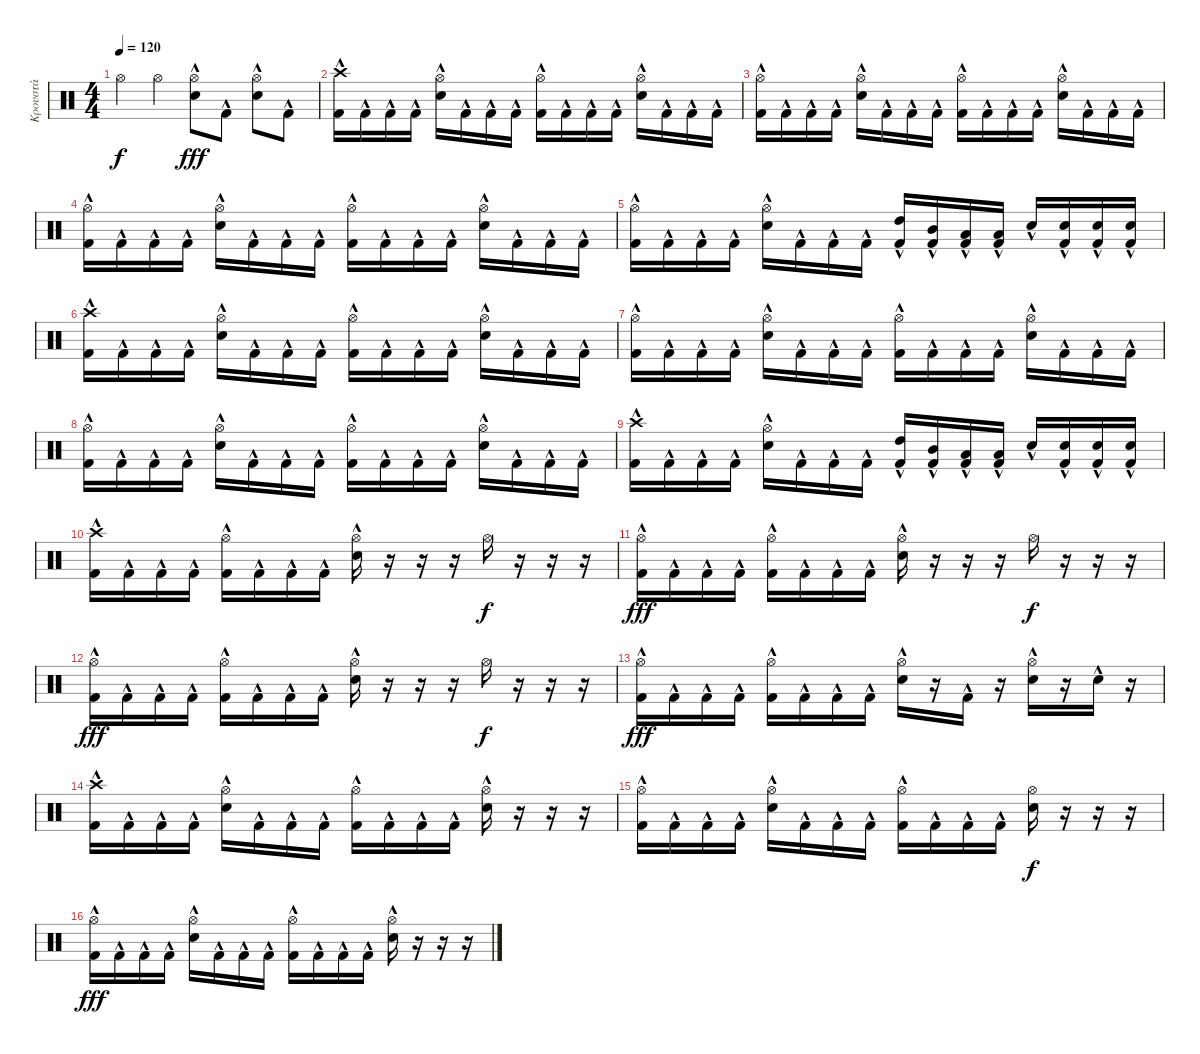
\track ("Κρουστά" "Κρουστά") {instrument percussion}
\staff {score}
\articulation defaults
\ts (4 4)
\tempo 120
\clef neutral
\ks c "Hi-Hat (open)".4{dy f} "Hi-Hat (open)".4
("Hi-Hat (open)" "Electric Snare (hit)"{hac}).8{dy fff} "Kick (hit) 2"{hac}.8 ("Hi-Hat (open)" "Electric Snare (hit)"{hac}).8 "Kick (hit) 2"{hac}.8 |
("Kick (hit) 2"{hac} "Crash high (hit)").16 "Kick (hit) 2"{hac}.16 "Kick (hit) 2"{hac}.16 "Kick (hit) 2"{hac}.16 ("Electric Snare (hit)"{hac} "Hi-Hat (open)").16 "Kick (hit) 2"{hac}.16 "Kick (hit) 2"{hac}.16 "Kick (hit) 2"{hac}.16 ("Kick (hit) 2"{hac} "Hi-Hat (open)").16 "Kick (hit) 2"{hac}.16 "Kick (hit) 2"{hac}.16 "Kick (hit) 2"{hac}.16 ("Electric Snare (hit)"{hac} "Hi-Hat (open)").16 "Kick (hit) 2"{hac}.16 "Kick (hit) 2"{hac}.16 "Kick (hit) 2"{hac}.16 |
("Kick (hit) 2"{hac} "Hi-Hat (open)").16 "Kick (hit) 2"{hac}.16 "Kick (hit) 2"{hac}.16 "Kick (hit) 2"{hac}.16 ("Electric Snare (hit)"{hac} "Hi-Hat (open)").16 "Kick (hit) 2"{hac}.16 "Kick (hit) 2"{hac}.16 "Kick (hit) 2"{hac}.16 ("Kick (hit) 2"{hac} "Hi-Hat (open)").16 "Kick (hit) 2"{hac}.16 "Kick (hit) 2"{hac}.16 "Kick (hit) 2"{hac}.16 ("Electric Snare (hit)"{hac} "Hi-Hat (open)").16 "Kick (hit) 2"{hac}.16 "Kick (hit) 2"{hac}.16 "Kick (hit) 2"{hac}.16 |
("Kick (hit) 2"{hac} "Hi-Hat (open)").16 "Kick (hit) 2"{hac}.16 "Kick (hit) 2"{hac}.16 "Kick (hit) 2"{hac}.16 ("Electric Snare (hit)"{hac} "Hi-Hat (open)").16 "Kick (hit) 2"{hac}.16 "Kick (hit) 2"{hac}.16 "Kick (hit) 2"{hac}.16 ("Kick (hit) 2"{hac} "Hi-Hat (open)").16 "Kick (hit) 2"{hac}.16 "Kick (hit) 2"{hac}.16 "Kick (hit) 2"{hac}.16 ("Electric Snare (hit)"{hac} "Hi-Hat (open)").16 "Kick (hit) 2"{hac}.16 "Kick (hit) 2"{hac}.16 "Kick (hit) 2"{hac}.16 |
("Kick (hit) 2"{hac} "Hi-Hat (open)").16 "Kick (hit) 2"{hac}.16 "Kick (hit) 2"{hac}.16 "Kick (hit) 2"{hac}.16 ("Electric Snare (hit)"{hac} "Hi-Hat (open)").16 "Kick (hit) 2"{hac}.16 "Kick (hit) 2"{hac}.16 "Kick (hit) 2"{hac}.16 ("Kick (hit) 2"{hac} "High Tom (hit)").16 ("Kick (hit) 2"{hac} "Mid Tom (hit)").16 ("Kick (hit) 2"{hac} "Low Tom (hit)").16 ("Kick (hit) 2"{hac} "Low Tom (hit)").16 "Electric Snare (hit)"{hac}.16 ("Kick (hit) 2"{hac} "Electric Snare (hit)").16 ("Kick (hit) 2"{hac} "Electric Snare (hit)").16 ("Kick (hit) 2"{hac} "Electric Snare (hit)").16 |
("Kick (hit) 2"{hac} "Crash high (hit)").16 "Kick (hit) 2"{hac}.16 "Kick (hit) 2"{hac}.16 "Kick (hit) 2"{hac}.16 ("Electric Snare (hit)"{hac} "Hi-Hat (open)").16 "Kick (hit) 2"{hac}.16 "Kick (hit) 2"{hac}.16 "Kick (hit) 2"{hac}.16 ("Kick (hit) 2"{hac} "Hi-Hat (open)").16 "Kick (hit) 2"{hac}.16 "Kick (hit) 2"{hac}.16 "Kick (hit) 2"{hac}.16 ("Electric Snare (hit)"{hac} "Hi-Hat (open)").16 "Kick (hit) 2"{hac}.16 "Kick (hit) 2"{hac}.16 "Kick (hit) 2"{hac}.16 |
("Kick (hit) 2"{hac} "Hi-Hat (open)").16 "Kick (hit) 2"{hac}.16 "Kick (hit) 2"{hac}.16 "Kick (hit) 2"{hac}.16 ("Electric Snare (hit)"{hac} "Hi-Hat (open)").16 "Kick (hit) 2"{hac}.16 "Kick (hit) 2"{hac}.16 "Kick (hit) 2"{hac}.16 ("Kick (hit) 2"{hac} "Hi-Hat (open)").16 "Kick (hit) 2"{hac}.16 "Kick (hit) 2"{hac}.16 "Kick (hit) 2"{hac}.16 ("Electric Snare (hit)"{hac} "Hi-Hat (open)").16 "Kick (hit) 2"{hac}.16 "Kick (hit) 2"{hac}.16 "Kick (hit) 2"{hac}.16 |
("Kick (hit) 2"{hac} "Hi-Hat (open)").16 "Kick (hit) 2"{hac}.16 "Kick (hit) 2"{hac}.16 "Kick (hit) 2"{hac}.16 ("Electric Snare (hit)"{hac} "Hi-Hat (open)").16 "Kick (hit) 2"{hac}.16 "Kick (hit) 2"{hac}.16 "Kick (hit) 2"{hac}.16 ("Kick (hit) 2"{hac} "Hi-Hat (open)").16 "Kick (hit) 2"{hac}.16 "Kick (hit) 2"{hac}.16 "Kick (hit) 2"{hac}.16 ("Electric Snare (hit)"{hac} "Hi-Hat (open)").16 "Kick (hit) 2"{hac}.16 "Kick (hit) 2"{hac}.16 "Kick (hit) 2"{hac}.16 |
("Kick (hit) 2"{hac} "Crash high (hit)").16 "Kick (hit) 2"{hac}.16 "Kick (hit) 2"{hac}.16 "Kick (hit) 2"{hac}.16 ("Electric Snare (hit)"{hac} "Hi-Hat (open)").16 "Kick (hit) 2"{hac}.16 "Kick (hit) 2"{hac}.16 "Kick (hit) 2"{hac}.16 ("Kick (hit) 2"{hac} "High Tom (hit)").16 ("Kick (hit) 2"{hac} "Mid Tom (hit)").16 ("Kick (hit) 2"{hac} "Low Tom (hit)").16 ("Kick (hit) 2"{hac} "Low Tom (hit)").16 "Electric Snare (hit)"{hac}.16 ("Kick (hit) 2"{hac} "Electric Snare (hit)").16 ("Kick (hit) 2"{hac} "Electric Snare (hit)").16 ("Kick (hit) 2"{hac} "Electric Snare (hit)").16 |
("Kick (hit) 2"{hac} "Crash high (hit)").16 "Kick (hit) 2"{hac}.16 "Kick (hit) 2"{hac}.16 "Kick (hit) 2"{hac}.16 ("Kick (hit) 2"{hac} "Hi-Hat (open)").16 "Kick (hit) 2"{hac}.16 "Kick (hit) 2"{hac}.16 "Kick (hit) 2"{hac}.16 ("Electric Snare (hit)"{hac} "Hi-Hat (open)").16 r.16 r.16 r.16 "Hi-Hat (open)".16{dy f} r.16 r.16 r.16 |
("Kick (hit) 2"{hac} "Hi-Hat (open)").16{dy fff} "Kick (hit) 2"{hac}.16 "Kick (hit) 2"{hac}.16 "Kick (hit) 2"{hac}.16 ("Kick (hit) 2"{hac} "Hi-Hat (open)").16 "Kick (hit) 2"{hac}.16 "Kick (hit) 2"{hac}.16 "Kick (hit) 2"{hac}.16 ("Electric Snare (hit)"{hac} "Hi-Hat (open)").16 r.16 r.16 r.16 "Hi-Hat (open)".16{dy f} r.16 r.16 r.16 |
("Kick (hit) 2"{hac} "Hi-Hat (open)").16{dy fff} "Kick (hit) 2"{hac}.16 "Kick (hit) 2"{hac}.16 "Kick (hit) 2"{hac}.16 ("Kick (hit) 2"{hac} "Hi-Hat (open)").16 "Kick (hit) 2"{hac}.16 "Kick (hit) 2"{hac}.16 "Kick (hit) 2"{hac}.16 ("Electric Snare (hit)"{hac} "Hi-Hat (open)").16 r.16 r.16 r.16 "Hi-Hat (open)".16{dy f} r.16 r.16 r.16 |
("Kick (hit) 2"{hac} "Hi-Hat (open)").16{dy fff} "Kick (hit) 2"{hac}.16 "Kick (hit) 2"{hac}.16 "Kick (hit) 2"{hac}.16 ("Kick (hit) 2"{hac} "Hi-Hat (open)").16 "Kick (hit) 2"{hac}.16 "Kick (hit) 2"{hac}.16 "Kick (hit) 2"{hac}.16 ("Electric Snare (hit)"{hac} "Hi-Hat (open)").16 r.16 "Kick (hit) 2"{hac}.16 r.16 ("Electric Snare (hit)"{hac} "Hi-Hat (open)").16 r.16 "Electric Snare (hit)"{hac}.16 r.16 |
("Kick (hit) 2"{hac} "Crash high (hit)").16 "Kick (hit) 2"{hac}.16 "Kick (hit) 2"{hac}.16 "Kick (hit) 2"{hac}.16 ("Electric Snare (hit)"{hac} "Hi-Hat (open)").16 "Kick (hit) 2"{hac}.16 "Kick (hit) 2"{hac}.16 "Kick (hit) 2"{hac}.16 ("Kick (hit) 2"{hac} "Hi-Hat (open)").16 "Kick (hit) 2"{hac}.16 "Kick (hit) 2"{hac}.16 "Kick (hit) 2"{hac}.16 ("Electric Snare (hit)"{hac} "Hi-Hat (open)").16 r.16 r.16 r.16 |
("Kick (hit) 2"{hac} "Hi-Hat (open)").16 "Kick (hit) 2"{hac}.16 "Kick (hit) 2"{hac}.16 "Kick (hit) 2"{hac}.16 ("Electric Snare (hit)"{hac} "Hi-Hat (open)").16 "Kick (hit) 2"{hac}.16 "Kick (hit) 2"{hac}.16 "Kick (hit) 2"{hac}.16 ("Kick (hit) 2"{hac} "Hi-Hat (open)").16 "Kick (hit) 2"{hac}.16 "Kick (hit) 2"{hac}.16 "Kick (hit) 2"{hac}.16 ("Electric Snare (hit)" "Hi-Hat (open)").16{dy f} r.16 r.16 r.16 |
("Kick (hit) 2"{hac} "Hi-Hat (open)").16{dy fff} "Kick (hit) 2"{hac}.16 "Kick (hit) 2"{hac}.16 "Kick (hit) 2"{hac}.16 ("Electric Snare (hit)"{hac} "Hi-Hat (open)").16 "Kick (hit) 2"{hac}.16 "Kick (hit) 2"{hac}.16 "Kick (hit) 2"{hac}.16 ("Kick (hit) 2"{hac} "Hi-Hat (open)").16 "Kick (hit) 2"{hac}.16 "Kick (hit) 2"{hac}.16 "Kick (hit) 2"{hac}.16 ("Electric Snare (hit)"{hac} "Hi-Hat (open)").16 r.16 r.16 r.16
